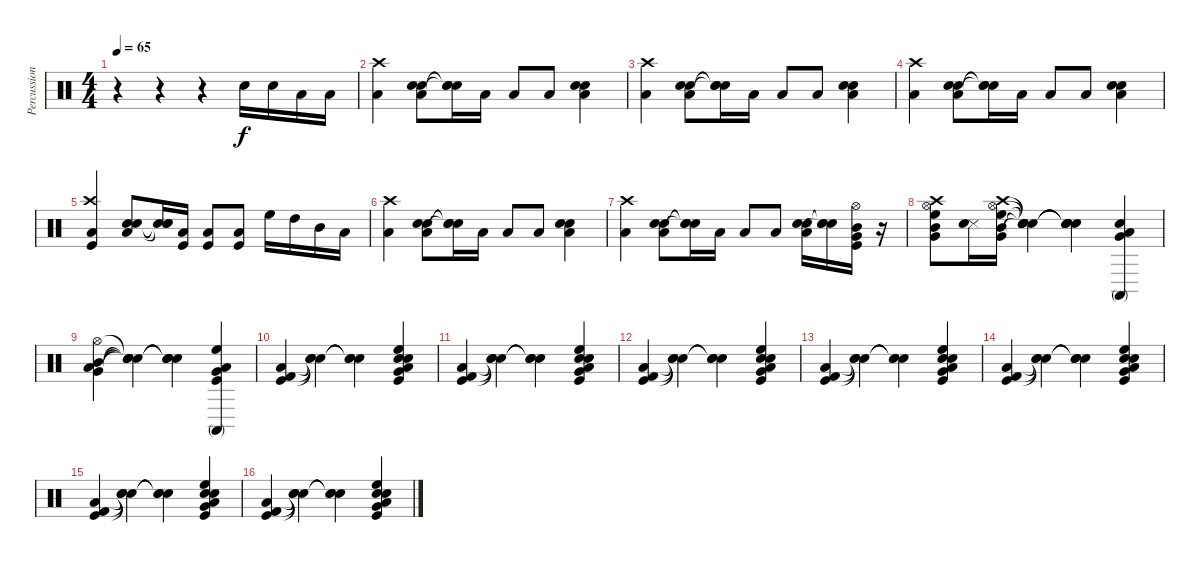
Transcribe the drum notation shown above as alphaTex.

\track ("Percussion" "Percussion") {instrument percussion}
\staff {score}
\articulation defaults
\ts (4 4)
\tempo 65
\clef neutral
\ks c
r.4{dy f} r.4 r.4 "Electric Snare (hit)".16 "Snare (hit) 2".16 "Low Tom (hit)".16 "Low Floor Tom (hit)".16 |
("Crash high (hit)" "Low Tom (hit)").4 ("Snare (hit) 2" "Electric Snare (hit)" "Low Tom (hit)").8 ("Snare (hit)"{t} "Snare (hit)"{t} "Snare (hit)"{t}).16 "Low Tom (hit)".16 "Low Tom (hit)".8 "Low Tom (hit)".8 ("Snare (hit) 2" "Electric Snare (hit)" "Low Tom (hit)").4 |
("Crash high (hit)" "Low Tom (hit)").4 ("Snare (hit) 2" "Electric Snare (hit)" "Low Tom (hit)").8 ("Snare (hit)"{t} "Snare (hit)"{t} "Snare (hit)"{t}).16 "Low Tom (hit)".16 "Low Tom (hit)".8 "Low Tom (hit)".8 ("Snare (hit) 2" "Electric Snare (hit)" "Low Tom (hit)").4 |
("Crash high (hit)" "Low Tom (hit)").4 ("Snare (hit) 2" "Electric Snare (hit)" "Low Tom (hit)").8 ("Snare (hit)"{t} "Snare (hit)"{t} "Snare (hit)"{t}).16 "Low Tom (hit)".16 "Low Tom (hit)".8 "Low Tom (hit)".8 ("Snare (hit) 2" "Electric Snare (hit)" "Low Tom (hit)").4 |
("Crash high (hit)" "Low Tom (hit)" "Kick (hit)").4 ("Hand Clap (hit)" "Low Tom (hit)" "Electric Snare (hit)").8 ("Snare (hit)"{t} "Snare (hit)"{t} "Snare (hit)"{t}).16 ("Low Tom (hit)" "Kick (hit)").16 ("Low Tom (hit)" "Kick (hit)").8 ("Low Tom (hit)" "Kick (hit)").8 "High Floor Tom (hit)".16 "High Tom (hit)".16 "Mid Tom (hit)".16 "Low Tom (hit)".16 |
("Crash high (hit)" "Low Tom (hit)").4 ("Snare (hit) 2" "Electric Snare (hit)" "Low Tom (hit)").8 ("Snare (hit)"{t} "Snare (hit)"{t} "Snare (hit)"{t}).16 "Low Tom (hit)".16 "Low Tom (hit)".8 "Low Tom (hit)".8 ("Snare (hit) 2" "Electric Snare (hit)" "Low Tom (hit)").4 |
("Crash high (hit)" "Low Tom (hit)").4 ("Hand Clap (hit)" "Electric Snare (hit)" "Low Tom (hit)").8 ("Snare (hit)"{t} "Snare (hit)"{t} "Snare (hit)"{t}).16 "Low Tom (hit)".16 "Low Tom (hit)".8 "Low Tom (hit)".8 ("Hand Clap (hit)" "Electric Snare (hit)" "Low Tom (hit)").16 ("Snare (hit)"{t} "Snare (hit)"{t} "Snare (hit)"{t}).16 ("Mid Tom (hit)" "Very Low Tom (hit)" "Kick (hit)" "Hi-Hat (open)").16 r.16 |
("Mid Tom (hit)" "Very Low Tom (hit)" "Hi-Hat (open)" "High Floor Tom (hit)" "Crash high (hit)").8 ("Snare (side stick) 3" "Hand Clap (hit)").16 ("Mid Tom (hit)" "Very Low Tom (hit)" "Hi-Hat (open)" "High Floor Tom (hit)" "Crash high (hit)").16 ("Snare (hit)"{t} "Snare (hit)"{t} "Snare (hit)"{t} "Snare (hit)"{t} "Snare (hit)"{t}).4 ("Snare (hit)"{t} "Snare (hit)"{t} "Snare (hit)"{t} "Snare (hit)"{t} "Snare (hit)"{t}).4 ("Hand Clap (hit)" "Low Tom (hit)" "Very Low Tom (hit)" "Conga high (mute)").4 |
("Mid Tom (hit)" "Hi-Hat (open)" "Low Tom (hit)" "Very Low Tom (hit)").4 ("Snare (hit)"{t} "Snare (hit)"{t} "Snare (hit)"{t} "Snare (hit)"{t}).4 ("Snare (hit)"{t} "Snare (hit)"{t} "Snare (hit)"{t} "Snare (hit)"{t}).4 ("Conga high (mute)" "Kick (hit)" "High Floor Tom (hit)" "Low Tom (hit)" "Very Low Tom (hit)").4 |
("Low Floor Tom (hit)" "Kick (hit)" "Kick (hit) 2").4 ("Snare (hit)"{t} "Snare (hit)"{t} "Snare (hit)"{t}).4 ("Snare (hit)"{t} "Snare (hit)"{t} "Snare (hit)"{t}).4 ("Hand Clap (hit)" "Kick (hit)" "High Floor Tom (hit)" "Electric Snare (hit)" "Low Tom (hit)" "Very Low Tom (hit)").4 |
("Low Floor Tom (hit)" "Kick (hit)" "Kick (hit) 2").4 ("Snare (hit)"{t} "Snare (hit)"{t} "Snare (hit)"{t}).4 ("Snare (hit)"{t} "Snare (hit)"{t} "Snare (hit)"{t}).4 ("Electric Snare (hit)" "Kick (hit)" "High Floor Tom (hit)" "Hand Clap (hit)" "Low Tom (hit)" "Very Low Tom (hit)").4 |
("Low Floor Tom (hit)" "Kick (hit)" "Kick (hit) 2").4 ("Snare (hit)"{t} "Snare (hit)"{t} "Snare (hit)"{t}).4 ("Snare (hit)"{t} "Snare (hit)"{t} "Snare (hit)"{t}).4 ("Electric Snare (hit)" "Kick (hit)" "High Floor Tom (hit)" "Hand Clap (hit)" "Low Tom (hit)" "Very Low Tom (hit)").4 |
("Low Floor Tom (hit)" "Kick (hit)" "Kick (hit) 2").4 ("Snare (hit)"{t} "Snare (hit)"{t} "Snare (hit)"{t}).4 ("Snare (hit)"{t} "Snare (hit)"{t} "Snare (hit)"{t}).4 ("Electric Snare (hit)" "Kick (hit)" "High Floor Tom (hit)" "Hand Clap (hit)" "Low Tom (hit)" "Very Low Tom (hit)").4 |
("Low Floor Tom (hit)" "Kick (hit)" "Kick (hit) 2").4 ("Snare (hit)"{t} "Snare (hit)"{t} "Snare (hit)"{t}).4 ("Snare (hit)"{t} "Snare (hit)"{t} "Snare (hit)"{t}).4 ("Electric Snare (hit)" "Kick (hit)" "High Floor Tom (hit)" "Hand Clap (hit)" "Low Tom (hit)" "Very Low Tom (hit)").4 |
("Low Floor Tom (hit)" "Kick (hit)" "Kick (hit) 2").4 ("Snare (hit)"{t} "Snare (hit)"{t} "Snare (hit)"{t}).4 ("Snare (hit)"{t} "Snare (hit)"{t} "Snare (hit)"{t}).4 ("Electric Snare (hit)" "Kick (hit)" "High Floor Tom (hit)" "Hand Clap (hit)" "Low Tom (hit)" "Very Low Tom (hit)").4 |
("Low Floor Tom (hit)" "Kick (hit)" "Kick (hit) 2").4 ("Snare (hit)"{t} "Snare (hit)"{t} "Snare (hit)"{t}).4 ("Snare (hit)"{t} "Snare (hit)"{t} "Snare (hit)"{t}).4 ("Electric Snare (hit)" "Kick (hit)" "High Floor Tom (hit)" "Hand Clap (hit)" "Low Tom (hit)" "Very Low Tom (hit)").4
